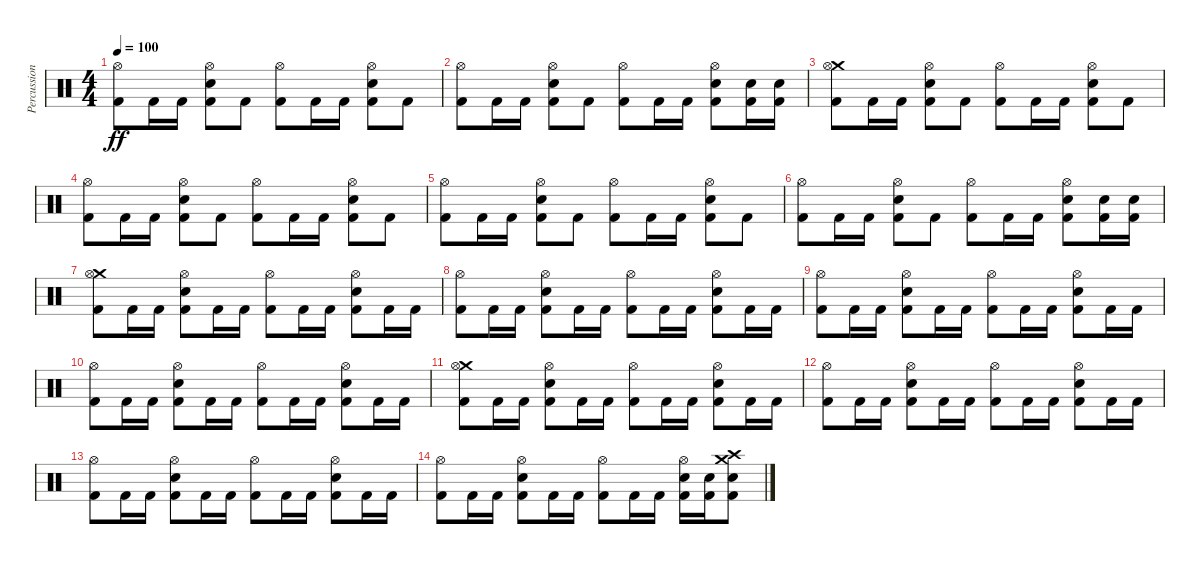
\track ("Percussion" "Percussion") {instrument percussion}
\staff {score}
\articulation defaults
\ts (4 4)
\tempo 100
\clef neutral
\ks c
("Hi-Hat (open)" "Kick (hit) 2").8{dy ff} "Kick (hit) 2".16 "Kick (hit) 2".16 ("Hi-Hat (open)" "Electric Snare (hit)" "Kick (hit) 2").8 "Kick (hit) 2".8 ("Hi-Hat (open)" "Kick (hit) 2").8 "Kick (hit) 2".16 "Kick (hit) 2".16 ("Hi-Hat (open)" "Electric Snare (hit)" "Kick (hit) 2").8 "Kick (hit) 2".8 |
("Hi-Hat (open)" "Kick (hit) 2").8 "Kick (hit) 2".16 "Kick (hit) 2".16 ("Hi-Hat (open)" "Electric Snare (hit)" "Kick (hit) 2").8 "Kick (hit) 2".8 ("Hi-Hat (open)" "Kick (hit) 2").8 "Kick (hit) 2".16 "Kick (hit) 2".16 ("Hi-Hat (open)" "Electric Snare (hit)" "Kick (hit) 2").8 ("Electric Snare (hit)" "Kick (hit) 2").16 ("Electric Snare (hit)" "Kick (hit) 2").16 |
("Crash medium (hit)" "Hi-Hat (open)" "Kick (hit) 2").8 "Kick (hit) 2".16 "Kick (hit) 2".16 ("Hi-Hat (open)" "Electric Snare (hit)" "Kick (hit) 2").8 "Kick (hit) 2".8 ("Hi-Hat (open)" "Kick (hit) 2").8 "Kick (hit) 2".16 "Kick (hit) 2".16 ("Hi-Hat (open)" "Electric Snare (hit)" "Kick (hit) 2").8 "Kick (hit) 2".8 |
("Hi-Hat (open)" "Kick (hit) 2").8 "Kick (hit) 2".16 "Kick (hit) 2".16 ("Hi-Hat (open)" "Electric Snare (hit)" "Kick (hit) 2").8 "Kick (hit) 2".8 ("Hi-Hat (open)" "Kick (hit) 2").8 "Kick (hit) 2".16 "Kick (hit) 2".16 ("Hi-Hat (open)" "Electric Snare (hit)" "Kick (hit) 2").8 "Kick (hit) 2".8 |
("Hi-Hat (open)" "Kick (hit) 2").8 "Kick (hit) 2".16 "Kick (hit) 2".16 ("Hi-Hat (open)" "Electric Snare (hit)" "Kick (hit) 2").8 "Kick (hit) 2".8 ("Hi-Hat (open)" "Kick (hit) 2").8 "Kick (hit) 2".16 "Kick (hit) 2".16 ("Hi-Hat (open)" "Electric Snare (hit)" "Kick (hit) 2").8 "Kick (hit) 2".8 |
("Hi-Hat (open)" "Kick (hit) 2").8 "Kick (hit) 2".16 "Kick (hit) 2".16 ("Hi-Hat (open)" "Electric Snare (hit)" "Kick (hit) 2").8 "Kick (hit) 2".8 ("Hi-Hat (open)" "Kick (hit) 2").8 "Kick (hit) 2".16 "Kick (hit) 2".16 ("Hi-Hat (open)" "Electric Snare (hit)" "Kick (hit) 2").8 ("Electric Snare (hit)" "Kick (hit) 2").16 ("Electric Snare (hit)" "Kick (hit) 2").16 |
("Crash medium (hit)" "Hi-Hat (open)" "Kick (hit) 2").8 "Kick (hit) 2".16 "Kick (hit) 2".16 ("Hi-Hat (open)" "Electric Snare (hit)" "Kick (hit) 2").8 "Kick (hit) 2".16 "Kick (hit) 2".16 ("Hi-Hat (open)" "Kick (hit) 2").8 "Kick (hit) 2".16 "Kick (hit) 2".16 ("Hi-Hat (open)" "Electric Snare (hit)" "Kick (hit) 2").8 "Kick (hit) 2".16 "Kick (hit) 2".16 |
("Hi-Hat (open)" "Kick (hit) 2").8 "Kick (hit) 2".16 "Kick (hit) 2".16 ("Hi-Hat (open)" "Electric Snare (hit)" "Kick (hit) 2").8 "Kick (hit) 2".16 "Kick (hit) 2".16 ("Hi-Hat (open)" "Kick (hit) 2").8 "Kick (hit) 2".16 "Kick (hit) 2".16 ("Hi-Hat (open)" "Electric Snare (hit)" "Kick (hit) 2").8 "Kick (hit) 2".16 "Kick (hit) 2".16 |
("Hi-Hat (open)" "Kick (hit) 2").8 "Kick (hit) 2".16 "Kick (hit) 2".16 ("Hi-Hat (open)" "Electric Snare (hit)" "Kick (hit) 2").8 "Kick (hit) 2".16 "Kick (hit) 2".16 ("Hi-Hat (open)" "Kick (hit) 2").8 "Kick (hit) 2".16 "Kick (hit) 2".16 ("Hi-Hat (open)" "Electric Snare (hit)" "Kick (hit) 2").8 "Kick (hit) 2".16 "Kick (hit) 2".16 |
("Hi-Hat (open)" "Kick (hit) 2").8 "Kick (hit) 2".16 "Kick (hit) 2".16 ("Hi-Hat (open)" "Electric Snare (hit)" "Kick (hit) 2").8 "Kick (hit) 2".16 "Kick (hit) 2".16 ("Hi-Hat (open)" "Kick (hit) 2").8 "Kick (hit) 2".16 "Kick (hit) 2".16 ("Hi-Hat (open)" "Electric Snare (hit)" "Kick (hit) 2").8 "Kick (hit) 2".16 "Kick (hit) 2".16 |
("Crash medium (hit)" "Hi-Hat (open)" "Kick (hit) 2").8 "Kick (hit) 2".16 "Kick (hit) 2".16 ("Hi-Hat (open)" "Electric Snare (hit)" "Kick (hit) 2").8 "Kick (hit) 2".16 "Kick (hit) 2".16 ("Hi-Hat (open)" "Kick (hit) 2").8 "Kick (hit) 2".16 "Kick (hit) 2".16 ("Hi-Hat (open)" "Electric Snare (hit)" "Kick (hit) 2").8 "Kick (hit) 2".16 "Kick (hit) 2".16 |
("Hi-Hat (open)" "Kick (hit) 2").8 "Kick (hit) 2".16 "Kick (hit) 2".16 ("Hi-Hat (open)" "Electric Snare (hit)" "Kick (hit) 2").8 "Kick (hit) 2".16 "Kick (hit) 2".16 ("Hi-Hat (open)" "Kick (hit) 2").8 "Kick (hit) 2".16 "Kick (hit) 2".16 ("Hi-Hat (open)" "Electric Snare (hit)" "Kick (hit) 2").8 "Kick (hit) 2".16 "Kick (hit) 2".16 |
("Hi-Hat (open)" "Kick (hit) 2").8 "Kick (hit) 2".16 "Kick (hit) 2".16 ("Hi-Hat (open)" "Electric Snare (hit)" "Kick (hit) 2").8 "Kick (hit) 2".16 "Kick (hit) 2".16 ("Hi-Hat (open)" "Kick (hit) 2").8 "Kick (hit) 2".16 "Kick (hit) 2".16 ("Hi-Hat (open)" "Electric Snare (hit)" "Kick (hit) 2").8 "Kick (hit) 2".16 "Kick (hit) 2".16 |
("Hi-Hat (open)" "Kick (hit) 2").8 "Kick (hit) 2".16 "Kick (hit) 2".16 ("Hi-Hat (open)" "Electric Snare (hit)" "Kick (hit) 2").8 "Kick (hit) 2".16 "Kick (hit) 2".16 ("Hi-Hat (open)" "Kick (hit) 2").8 "Kick (hit) 2".16 "Kick (hit) 2".16 ("Hi-Hat (open)" "Electric Snare (hit)" "Kick (hit) 2").16 ("Electric Snare (hit)" "Kick (hit) 2").16 ("Crash medium (hit)" "Crash high (hit)" "Electric Snare (hit)" "Kick (hit) 2").8
